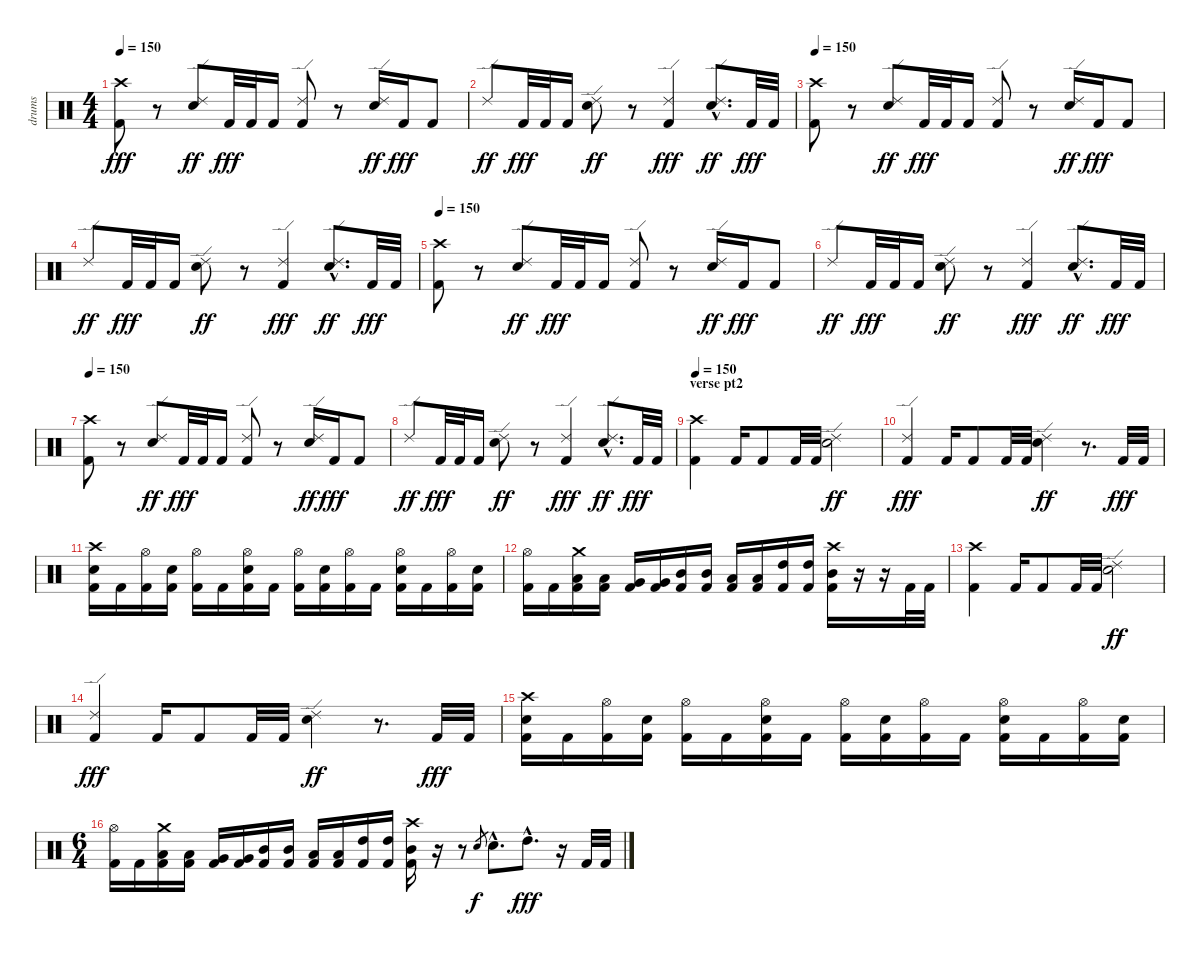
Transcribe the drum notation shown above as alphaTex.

\track ("drums" "drums") {instrument percussion}
\staff {score}
\articulation defaults
\ts (4 4)
\tempo 150
\clef neutral
\ks c
("Crash high (hit)" "Kick (hit) 2").8{dy fff} r.8 ("Ride (edge) 2" "Snare (hit) 2").8{dy ff} "Kick (hit) 2".32{dy fff} "Kick (hit) 2".32 "Kick (hit) 2".16 ("Ride (edge) 2" "Kick (hit) 2").8 r.8 ("Ride (edge) 2" "Snare (hit) 2").16{dy ff} "Kick (hit) 2".16{dy fff} "Kick (hit) 2".8 |
"Ride (edge) 2".8{dy ff} "Kick (hit) 2".32{dy fff} "Kick (hit) 2".32 "Kick (hit) 2".16 ("Ride (edge) 2" "Snare (hit) 2").8{dy ff} r.8 ("Ride (edge) 2" "Kick (hit) 2").4{dy fff} ("Ride (edge) 2"{hac} "Snare (hit) 2"{hac}).8{d dy ff} "Kick (hit) 2".32{dy fff} "Kick (hit) 2".32 |
\tempo 150
("Crash high (hit)" "Kick (hit) 2").8 r.8 ("Ride (edge) 2" "Snare (hit) 2").8{dy ff} "Kick (hit) 2".32{dy fff} "Kick (hit) 2".32 "Kick (hit) 2".16 ("Ride (edge) 2" "Kick (hit) 2").8 r.8 ("Ride (edge) 2" "Snare (hit) 2").16{dy ff} "Kick (hit) 2".16{dy fff} "Kick (hit) 2".8 |
"Ride (edge) 2".8{dy ff} "Kick (hit) 2".32{dy fff} "Kick (hit) 2".32 "Kick (hit) 2".16 ("Ride (edge) 2" "Snare (hit) 2").8{dy ff} r.8 ("Ride (edge) 2" "Kick (hit) 2").4{dy fff} ("Ride (edge) 2"{hac} "Snare (hit) 2"{hac}).8{d dy ff} "Kick (hit) 2".32{dy fff} "Kick (hit) 2".32 |
\tempo 150
("Crash high (hit)" "Kick (hit) 2").8 r.8 ("Ride (edge) 2" "Snare (hit) 2").8{dy ff} "Kick (hit) 2".32{dy fff} "Kick (hit) 2".32 "Kick (hit) 2".16 ("Ride (edge) 2" "Kick (hit) 2").8 r.8 ("Ride (edge) 2" "Snare (hit) 2").16{dy ff} "Kick (hit) 2".16{dy fff} "Kick (hit) 2".8 |
"Ride (edge) 2".8{dy ff} "Kick (hit) 2".32{dy fff} "Kick (hit) 2".32 "Kick (hit) 2".16 ("Ride (edge) 2" "Snare (hit) 2").8{dy ff} r.8 ("Ride (edge) 2" "Kick (hit) 2").4{dy fff} ("Ride (edge) 2"{hac} "Snare (hit) 2"{hac}).8{d dy ff} "Kick (hit) 2".32{dy fff} "Kick (hit) 2".32 |
\tempo 150
("Crash high (hit)" "Kick (hit) 2").8 r.8 ("Ride (edge) 2" "Snare (hit) 2").8{dy ff} "Kick (hit) 2".32{dy fff} "Kick (hit) 2".32 "Kick (hit) 2".16 ("Ride (edge) 2" "Kick (hit) 2").8 r.8 ("Ride (edge) 2" "Snare (hit) 2").16{dy ff} "Kick (hit) 2".16{dy fff} "Kick (hit) 2".8 |
"Ride (edge) 2".8{dy ff} "Kick (hit) 2".32{dy fff} "Kick (hit) 2".32 "Kick (hit) 2".16 ("Ride (edge) 2" "Snare (hit) 2").8{dy ff} r.8 ("Ride (edge) 2" "Kick (hit) 2").4{dy fff} ("Ride (edge) 2"{hac} "Snare (hit) 2"{hac}).8{d dy ff} "Kick (hit) 2".32{dy fff} "Kick (hit) 2".32 |
\section ("" "verse pt2")
\tempo 150
("Crash high (hit)" "Kick (hit) 2").4 "Kick (hit) 2".16 "Kick (hit) 2".8 "Kick (hit) 2".32 "Kick (hit) 2".32 ("Ride (edge) 2" "Snare (hit) 2").2{dy ff} |
("Ride (edge) 2" "Kick (hit) 2").4{dy fff} "Kick (hit) 2".16 "Kick (hit) 2".8 "Kick (hit) 2".32 "Kick (hit) 2".32 ("Ride (edge) 2" "Snare (hit) 2").4{dy ff} r.8{d} "Kick (hit) 2".32{dy fff} "Kick (hit) 2".32 |
("Crash high (hit)" "Snare (hit) 2" "Kick (hit) 2").16 "Kick (hit) 2".16 ("Hi-Hat (open)" "Kick (hit) 2").16 ("Snare (hit) 2" "Kick (hit) 2").16 ("Hi-Hat (open)" "Kick (hit) 2").16 "Kick (hit) 2".16 ("Hi-Hat (open)" "Snare (hit) 2" "Kick (hit) 2").16 "Kick (hit) 2".16 ("Hi-Hat (open)" "Kick (hit) 2").16 ("Snare (hit) 2" "Kick (hit) 2").16 ("Hi-Hat (open)" "Kick (hit) 2").16 "Kick (hit) 2".16 ("Hi-Hat (open)" "Snare (hit) 2" "Kick (hit) 2").16 "Kick (hit) 2".16 ("Hi-Hat (open)" "Kick (hit) 2").16 ("Snare (hit) 2" "Kick (hit) 2").16 |
("Hi-Hat (open)" "Kick (hit) 2").16 "Kick (hit) 2".16 ("Crash medium (hit)" "Low Tom (hit)" "Kick (hit) 2").16 ("Low Tom (hit)" "Kick (hit) 2").16 ("Very Low Tom (hit)" "Kick (hit) 2").16 ("Very Low Tom (hit)" "Kick (hit) 2").16 ("Mid Tom (hit)" "Kick (hit) 2").16 ("Mid Tom (hit)" "Kick (hit) 2").16 ("Low Tom (hit)" "Kick (hit) 2").16 ("Low Tom (hit)" "Kick (hit) 2").16 ("High Tom (hit)" "Kick (hit) 2").16 ("High Tom (hit)" "Kick (hit) 2").16 ("Crash high (hit)" "Mid Tom (hit)" "Kick (hit) 2").16 r.16 r.16 "Kick (hit) 2".32 "Kick (hit) 2".32 |
("Crash high (hit)" "Kick (hit) 2").4 "Kick (hit) 2".16 "Kick (hit) 2".8 "Kick (hit) 2".32 "Kick (hit) 2".32 ("Ride (edge) 2" "Snare (hit) 2").2{dy ff} |
("Ride (edge) 2" "Kick (hit) 2").4{dy fff} "Kick (hit) 2".16 "Kick (hit) 2".8 "Kick (hit) 2".32 "Kick (hit) 2".32 ("Ride (edge) 2" "Snare (hit) 2").4{dy ff} r.8{d} "Kick (hit) 2".32{dy fff} "Kick (hit) 2".32 |
("Crash high (hit)" "Snare (hit) 2" "Kick (hit) 2").16 "Kick (hit) 2".16 ("Hi-Hat (open)" "Kick (hit) 2").16 ("Snare (hit) 2" "Kick (hit) 2").16 ("Hi-Hat (open)" "Kick (hit) 2").16 "Kick (hit) 2".16 ("Hi-Hat (open)" "Snare (hit) 2" "Kick (hit) 2").16 "Kick (hit) 2".16 ("Hi-Hat (open)" "Kick (hit) 2").16 ("Snare (hit) 2" "Kick (hit) 2").16 ("Hi-Hat (open)" "Kick (hit) 2").16 "Kick (hit) 2".16 ("Hi-Hat (open)" "Snare (hit) 2" "Kick (hit) 2").16 "Kick (hit) 2".16 ("Hi-Hat (open)" "Kick (hit) 2").16 ("Snare (hit) 2" "Kick (hit) 2").16 |
\ts (6 4)
("Hi-Hat (open)" "Kick (hit) 2").16 "Kick (hit) 2".16 ("Crash medium (hit)" "Low Tom (hit)" "Kick (hit) 2").16 ("Low Tom (hit)" "Kick (hit) 2").16 ("Very Low Tom (hit)" "Kick (hit) 2").16 ("Very Low Tom (hit)" "Kick (hit) 2").16 ("Mid Tom (hit)" "Kick (hit) 2").16 ("Mid Tom (hit)" "Kick (hit) 2").16 ("Low Tom (hit)" "Kick (hit) 2").16 ("Low Tom (hit)" "Kick (hit) 2").16 ("High Tom (hit)" "Kick (hit) 2").16 ("High Tom (hit)" "Kick (hit) 2").16 ("Crash high (hit)" "Mid Tom (hit)" "Kick (hit) 2").16 r.16 r.8 "Snare (hit) 2".8{gr dy f} "Snare (hit) 2"{hac}.8{d} "High Tom (hit)"{hac}.8{d dy fff} r.16 "Kick (hit) 2".32 "Kick (hit) 2".32
